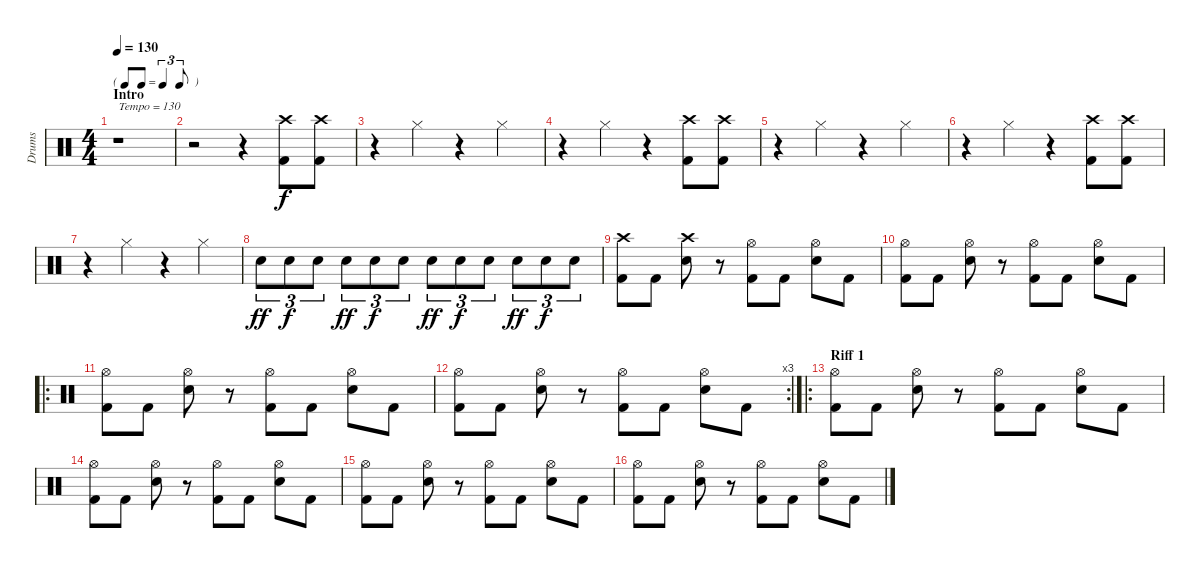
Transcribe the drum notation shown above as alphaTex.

\track ("Drums" "Drums") {instrument percussion}
\staff {score}
\articulation defaults
\ts (4 4)
\tf triplet8th
\section ("" "Intro")
\tempo 130
\clef neutral
\ks c
r.1{txt "Tempo = 130" dy f} |
r.2 r.4 ("Crash high (hit)" "Kick (hit) 2").8 ("Crash high (hit)" "Kick (hit) 2").8 |
r.4 "Hi-Hat (closed)".4 r.4 "Hi-Hat (closed)".4 |
r.4 "Hi-Hat (closed)".4 r.4 ("Crash high (hit)" "Kick (hit) 2").8 ("Crash high (hit)" "Kick (hit) 2").8 |
r.4 "Hi-Hat (closed)".4 r.4 "Hi-Hat (closed)".4 |
r.4 "Hi-Hat (closed)".4 r.4 ("Crash high (hit)" "Kick (hit) 2").8 ("Crash high (hit)" "Kick (hit) 2").8 |
r.4 "Hi-Hat (closed)".4 r.4 "Hi-Hat (closed)".4 |
"Electric Snare (hit)".8{tu (3 2) dy ff} "Electric Snare (hit)".8{tu (3 2) dy f} "Electric Snare (hit)".8{tu (3 2)} "Electric Snare (hit)".8{tu (3 2) dy ff} "Electric Snare (hit)".8{tu (3 2) dy f} "Electric Snare (hit)".8{tu (3 2)} "Electric Snare (hit)".8{tu (3 2) dy ff} "Electric Snare (hit)".8{tu (3 2) dy f} "Electric Snare (hit)".8{tu (3 2)} "Electric Snare (hit)".8{tu (3 2) dy ff} "Electric Snare (hit)".8{tu (3 2) dy f} "Electric Snare (hit)".8{tu (3 2)} |
("Crash high (hit)" "Kick (hit) 2").8 "Kick (hit) 2".8 ("Crash high (hit)" "Electric Snare (hit)").8 r.8 ("Hi-Hat (open)" "Kick (hit) 2").8 "Kick (hit) 2".8 ("Hi-Hat (open)" "Electric Snare (hit)").8 "Kick (hit) 2".8 |
("Hi-Hat (open)" "Kick (hit) 2").8 "Kick (hit) 2".8 ("Hi-Hat (open)" "Electric Snare (hit)").8 r.8 ("Hi-Hat (open)" "Kick (hit) 2").8 "Kick (hit) 2".8 ("Hi-Hat (open)" "Electric Snare (hit)").8 "Kick (hit) 2".8 |
\ro
("Hi-Hat (open)" "Kick (hit) 2").8 "Kick (hit) 2".8 ("Hi-Hat (open)" "Electric Snare (hit)").8 r.8 ("Hi-Hat (open)" "Kick (hit) 2").8 "Kick (hit) 2".8 ("Hi-Hat (open)" "Electric Snare (hit)").8 "Kick (hit) 2".8 |
\rc 3
("Hi-Hat (open)" "Kick (hit) 2").8 "Kick (hit) 2".8 ("Hi-Hat (open)" "Electric Snare (hit)").8 r.8 ("Hi-Hat (open)" "Kick (hit) 2").8 "Kick (hit) 2".8 ("Hi-Hat (open)" "Electric Snare (hit)").8 "Kick (hit) 2".8 |
\ro
\section ("" "Riff 1")
("Hi-Hat (open)" "Kick (hit) 2").8 "Kick (hit) 2".8 ("Hi-Hat (open)" "Electric Snare (hit)").8 r.8 ("Hi-Hat (open)" "Kick (hit) 2").8 "Kick (hit) 2".8 ("Hi-Hat (open)" "Electric Snare (hit)").8 "Kick (hit) 2".8 |
("Hi-Hat (open)" "Kick (hit) 2").8 "Kick (hit) 2".8 ("Hi-Hat (open)" "Electric Snare (hit)").8 r.8 ("Hi-Hat (open)" "Kick (hit) 2").8 "Kick (hit) 2".8 ("Hi-Hat (open)" "Electric Snare (hit)").8 "Kick (hit) 2".8 |
("Hi-Hat (open)" "Kick (hit) 2").8 "Kick (hit) 2".8 ("Hi-Hat (open)" "Electric Snare (hit)").8 r.8 ("Hi-Hat (open)" "Kick (hit) 2").8 "Kick (hit) 2".8 ("Hi-Hat (open)" "Electric Snare (hit)").8 "Kick (hit) 2".8 |
("Hi-Hat (open)" "Kick (hit) 2").8 "Kick (hit) 2".8 ("Hi-Hat (open)" "Electric Snare (hit)").8 r.8 ("Hi-Hat (open)" "Kick (hit) 2").8 "Kick (hit) 2".8 ("Hi-Hat (open)" "Electric Snare (hit)").8 "Kick (hit) 2".8
